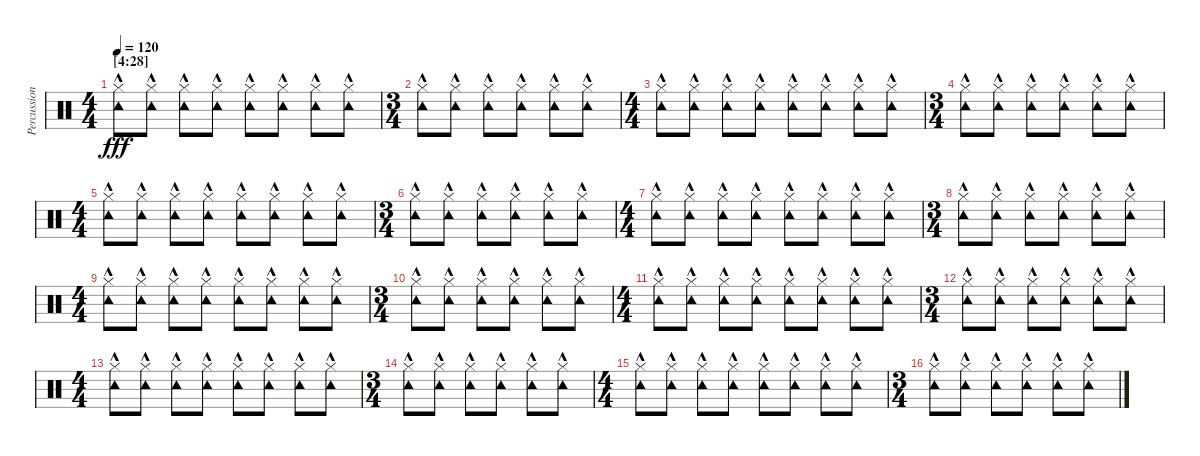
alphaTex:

\track ("Percussion" "Percussion") {instrument percussion}
\staff {score}
\articulation defaults
\ts (4 4)
\section ("" "[4:28]")
\tempo 120
\clef neutral
\ks c
("Tambourine (hit)"{hac} "Hi-Hat (closed)").8{dy fff} ("Tambourine (hit)"{hac} "Hi-Hat (closed)").8 ("Tambourine (hit)"{hac} "Hi-Hat (closed)").8 ("Tambourine (hit)"{hac} "Hi-Hat (closed)").8 ("Tambourine (hit)"{hac} "Hi-Hat (closed)").8 ("Tambourine (hit)"{hac} "Hi-Hat (closed)").8 ("Tambourine (hit)"{hac} "Hi-Hat (closed)").8 ("Tambourine (hit)"{hac} "Hi-Hat (closed)").8 |
\ts (3 4)
("Tambourine (hit)"{hac} "Hi-Hat (closed)").8 ("Tambourine (hit)"{hac} "Hi-Hat (closed)").8 ("Tambourine (hit)"{hac} "Hi-Hat (closed)").8 ("Tambourine (hit)"{hac} "Hi-Hat (closed)").8 ("Tambourine (hit)"{hac} "Hi-Hat (closed)").8 ("Tambourine (hit)"{hac} "Hi-Hat (closed)").8 |
\ts (4 4)
("Tambourine (hit)"{hac} "Hi-Hat (closed)").8 ("Tambourine (hit)"{hac} "Hi-Hat (closed)").8 ("Tambourine (hit)"{hac} "Hi-Hat (closed)").8 ("Tambourine (hit)"{hac} "Hi-Hat (closed)").8 ("Tambourine (hit)"{hac} "Hi-Hat (closed)").8 ("Tambourine (hit)"{hac} "Hi-Hat (closed)").8 ("Tambourine (hit)"{hac} "Hi-Hat (closed)").8 ("Tambourine (hit)"{hac} "Hi-Hat (closed)").8 |
\ts (3 4)
("Tambourine (hit)"{hac} "Hi-Hat (closed)").8 ("Tambourine (hit)"{hac} "Hi-Hat (closed)").8 ("Tambourine (hit)"{hac} "Hi-Hat (closed)").8 ("Tambourine (hit)"{hac} "Hi-Hat (closed)").8 ("Tambourine (hit)"{hac} "Hi-Hat (closed)").8 ("Tambourine (hit)"{hac} "Hi-Hat (closed)").8 |
\ts (4 4)
("Tambourine (hit)"{hac} "Hi-Hat (closed)").8 ("Tambourine (hit)"{hac} "Hi-Hat (closed)").8 ("Tambourine (hit)"{hac} "Hi-Hat (closed)").8 ("Tambourine (hit)"{hac} "Hi-Hat (closed)").8 ("Tambourine (hit)"{hac} "Hi-Hat (closed)").8 ("Tambourine (hit)"{hac} "Hi-Hat (closed)").8 ("Tambourine (hit)"{hac} "Hi-Hat (closed)").8 ("Tambourine (hit)"{hac} "Hi-Hat (closed)").8 |
\ts (3 4)
("Tambourine (hit)"{hac} "Hi-Hat (closed)").8 ("Tambourine (hit)"{hac} "Hi-Hat (closed)").8 ("Tambourine (hit)"{hac} "Hi-Hat (closed)").8 ("Tambourine (hit)"{hac} "Hi-Hat (closed)").8 ("Tambourine (hit)"{hac} "Hi-Hat (closed)").8 ("Tambourine (hit)"{hac} "Hi-Hat (closed)").8 |
\ts (4 4)
("Tambourine (hit)"{hac} "Hi-Hat (closed)").8 ("Tambourine (hit)"{hac} "Hi-Hat (closed)").8 ("Tambourine (hit)"{hac} "Hi-Hat (closed)").8 ("Tambourine (hit)"{hac} "Hi-Hat (closed)").8 ("Tambourine (hit)"{hac} "Hi-Hat (closed)").8 ("Tambourine (hit)"{hac} "Hi-Hat (closed)").8 ("Tambourine (hit)"{hac} "Hi-Hat (closed)").8 ("Tambourine (hit)"{hac} "Hi-Hat (closed)").8 |
\ts (3 4)
("Tambourine (hit)"{hac} "Hi-Hat (closed)").8 ("Tambourine (hit)"{hac} "Hi-Hat (closed)").8 ("Tambourine (hit)"{hac} "Hi-Hat (closed)").8 ("Tambourine (hit)"{hac} "Hi-Hat (closed)").8 ("Tambourine (hit)"{hac} "Hi-Hat (closed)").8 ("Tambourine (hit)"{hac} "Hi-Hat (closed)").8 |
\ts (4 4)
("Tambourine (hit)"{hac} "Hi-Hat (closed)").8 ("Tambourine (hit)"{hac} "Hi-Hat (closed)").8 ("Tambourine (hit)"{hac} "Hi-Hat (closed)").8 ("Tambourine (hit)"{hac} "Hi-Hat (closed)").8 ("Tambourine (hit)"{hac} "Hi-Hat (closed)").8 ("Tambourine (hit)"{hac} "Hi-Hat (closed)").8 ("Tambourine (hit)"{hac} "Hi-Hat (closed)").8 ("Tambourine (hit)"{hac} "Hi-Hat (closed)").8 |
\ts (3 4)
("Tambourine (hit)"{hac} "Hi-Hat (closed)").8 ("Tambourine (hit)"{hac} "Hi-Hat (closed)").8 ("Tambourine (hit)"{hac} "Hi-Hat (closed)").8 ("Tambourine (hit)"{hac} "Hi-Hat (closed)").8 ("Tambourine (hit)"{hac} "Hi-Hat (closed)").8 ("Tambourine (hit)"{hac} "Hi-Hat (closed)").8 |
\ts (4 4)
("Tambourine (hit)"{hac} "Hi-Hat (closed)").8 ("Tambourine (hit)"{hac} "Hi-Hat (closed)").8 ("Tambourine (hit)"{hac} "Hi-Hat (closed)").8 ("Tambourine (hit)"{hac} "Hi-Hat (closed)").8 ("Tambourine (hit)"{hac} "Hi-Hat (closed)").8 ("Tambourine (hit)"{hac} "Hi-Hat (closed)").8 ("Tambourine (hit)"{hac} "Hi-Hat (closed)").8 ("Tambourine (hit)"{hac} "Hi-Hat (closed)").8 |
\ts (3 4)
("Tambourine (hit)"{hac} "Hi-Hat (closed)").8 ("Tambourine (hit)"{hac} "Hi-Hat (closed)").8 ("Tambourine (hit)"{hac} "Hi-Hat (closed)").8 ("Tambourine (hit)"{hac} "Hi-Hat (closed)").8 ("Tambourine (hit)"{hac} "Hi-Hat (closed)").8 ("Tambourine (hit)"{hac} "Hi-Hat (closed)").8 |
\ts (4 4)
("Tambourine (hit)"{hac} "Hi-Hat (closed)").8 ("Tambourine (hit)"{hac} "Hi-Hat (closed)").8 ("Tambourine (hit)"{hac} "Hi-Hat (closed)").8 ("Tambourine (hit)"{hac} "Hi-Hat (closed)").8 ("Tambourine (hit)"{hac} "Hi-Hat (closed)").8 ("Tambourine (hit)"{hac} "Hi-Hat (closed)").8 ("Tambourine (hit)"{hac} "Hi-Hat (closed)").8 ("Tambourine (hit)"{hac} "Hi-Hat (closed)").8 |
\ts (3 4)
("Tambourine (hit)"{hac} "Hi-Hat (closed)").8 ("Tambourine (hit)"{hac} "Hi-Hat (closed)").8 ("Tambourine (hit)"{hac} "Hi-Hat (closed)").8 ("Tambourine (hit)"{hac} "Hi-Hat (closed)").8 ("Tambourine (hit)"{hac} "Hi-Hat (closed)").8 ("Tambourine (hit)"{hac} "Hi-Hat (closed)").8 |
\ts (4 4)
("Tambourine (hit)"{hac} "Hi-Hat (closed)").8 ("Tambourine (hit)"{hac} "Hi-Hat (closed)").8 ("Tambourine (hit)"{hac} "Hi-Hat (closed)").8 ("Tambourine (hit)"{hac} "Hi-Hat (closed)").8 ("Tambourine (hit)"{hac} "Hi-Hat (closed)").8 ("Tambourine (hit)"{hac} "Hi-Hat (closed)").8 ("Tambourine (hit)"{hac} "Hi-Hat (closed)").8 ("Tambourine (hit)"{hac} "Hi-Hat (closed)").8 |
\ts (3 4)
("Tambourine (hit)"{hac} "Hi-Hat (closed)").8 ("Tambourine (hit)"{hac} "Hi-Hat (closed)").8 ("Tambourine (hit)"{hac} "Hi-Hat (closed)").8 ("Tambourine (hit)"{hac} "Hi-Hat (closed)").8 ("Tambourine (hit)"{hac} "Hi-Hat (closed)").8 ("Tambourine (hit)"{hac} "Hi-Hat (closed)").8
